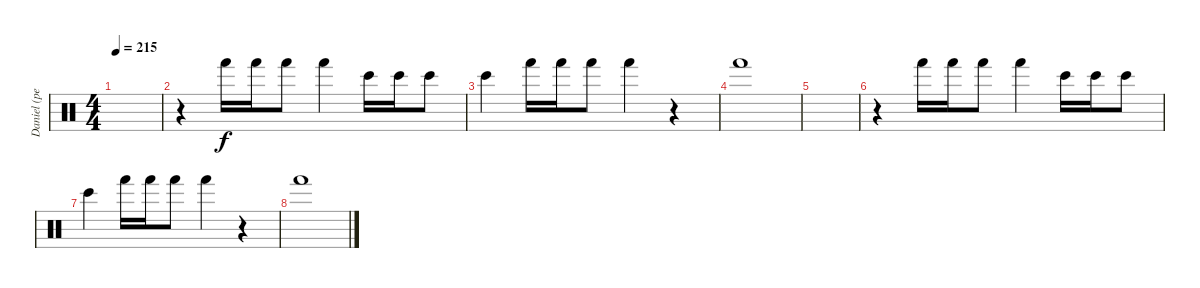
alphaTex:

\track ("Daniel (percussion)" "Daniel (pe") {instrument percussion}
\staff {score}
\articulation defaults
\ts (4 4)
\tempo 215
\clef neutral
\ks c
|
r.4 "Hand (hit)".16 "Hand (hit)".16 "Hand (hit)".8 "Hand (hit)".4 "Bongo High (hit)".16 "Bongo High (hit)".16 "Bongo High (hit)".8 |
"Bongo High (hit)".4 "Hand (hit)".16 "Hand (hit)".16 "Hand (hit)".8 "Hand (hit)".4 r.4 |
"Hand (hit)".1 |
|
r.4 "Hand (hit)".16 "Hand (hit)".16 "Hand (hit)".8 "Hand (hit)".4 "Bongo High (hit)".16 "Bongo High (hit)".16 "Bongo High (hit)".8 |
"Bongo High (hit)".4 "Hand (hit)".16 "Hand (hit)".16 "Hand (hit)".8 "Hand (hit)".4 r.4 |
"Hand (hit)".1
